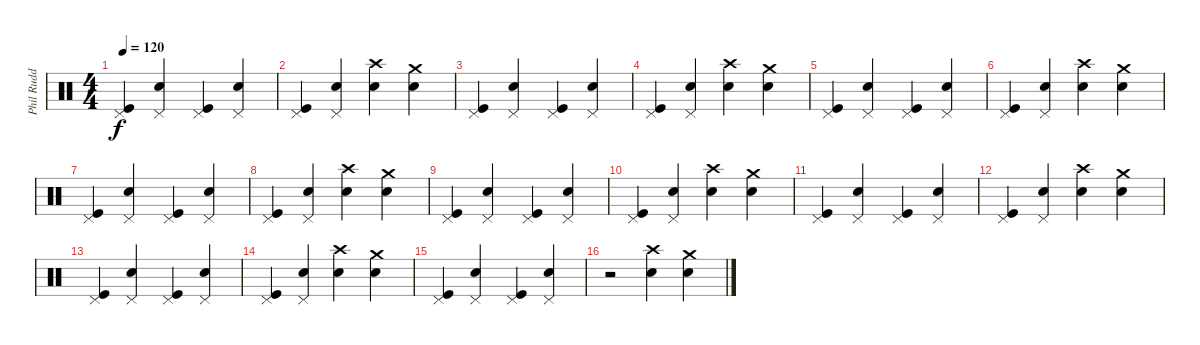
\track ("Phil Rudd" "Phil Rudd") {instrument percussion}
\staff {score}
\articulation defaults
\ts (4 4)
\tempo 120
\clef neutral
\ks c
("Pedal Hi-Hat (hit)" "Kick (hit)").4{dy f} ("Pedal Hi-Hat (hit)" "Electric Snare (hit)").4 ("Pedal Hi-Hat (hit)" "Kick (hit)").4 ("Pedal Hi-Hat (hit)" "Electric Snare (hit)").4 |
("Pedal Hi-Hat (hit)" "Kick (hit)").4 ("Pedal Hi-Hat (hit)" "Electric Snare (hit)").4 ("Electric Snare (hit)" "Crash high (hit)").4 ("Crash medium (hit)" "Electric Snare (hit)").4 |
("Pedal Hi-Hat (hit)" "Kick (hit)").4 ("Pedal Hi-Hat (hit)" "Electric Snare (hit)").4 ("Pedal Hi-Hat (hit)" "Kick (hit)").4 ("Pedal Hi-Hat (hit)" "Electric Snare (hit)").4 |
("Pedal Hi-Hat (hit)" "Kick (hit)").4 ("Pedal Hi-Hat (hit)" "Electric Snare (hit)").4 ("Electric Snare (hit)" "Crash high (hit)").4 ("Crash medium (hit)" "Electric Snare (hit)").4 |
("Pedal Hi-Hat (hit)" "Kick (hit)").4 ("Pedal Hi-Hat (hit)" "Electric Snare (hit)").4 ("Pedal Hi-Hat (hit)" "Kick (hit)").4 ("Pedal Hi-Hat (hit)" "Electric Snare (hit)").4 |
("Pedal Hi-Hat (hit)" "Kick (hit)").4 ("Pedal Hi-Hat (hit)" "Electric Snare (hit)").4 ("Electric Snare (hit)" "Crash high (hit)").4 ("Crash medium (hit)" "Electric Snare (hit)").4 |
("Pedal Hi-Hat (hit)" "Kick (hit)").4 ("Pedal Hi-Hat (hit)" "Electric Snare (hit)").4 ("Pedal Hi-Hat (hit)" "Kick (hit)").4 ("Pedal Hi-Hat (hit)" "Electric Snare (hit)").4 |
("Pedal Hi-Hat (hit)" "Kick (hit)").4 ("Pedal Hi-Hat (hit)" "Electric Snare (hit)").4 ("Electric Snare (hit)" "Crash high (hit)").4 ("Crash medium (hit)" "Electric Snare (hit)").4 |
("Pedal Hi-Hat (hit)" "Kick (hit)").4 ("Pedal Hi-Hat (hit)" "Electric Snare (hit)").4 ("Pedal Hi-Hat (hit)" "Kick (hit)").4 ("Pedal Hi-Hat (hit)" "Electric Snare (hit)").4 |
("Pedal Hi-Hat (hit)" "Kick (hit)").4 ("Pedal Hi-Hat (hit)" "Electric Snare (hit)").4 ("Electric Snare (hit)" "Crash high (hit)").4 ("Crash medium (hit)" "Electric Snare (hit)").4 |
("Pedal Hi-Hat (hit)" "Kick (hit)").4 ("Pedal Hi-Hat (hit)" "Electric Snare (hit)").4 ("Pedal Hi-Hat (hit)" "Kick (hit)").4 ("Pedal Hi-Hat (hit)" "Electric Snare (hit)").4 |
("Pedal Hi-Hat (hit)" "Kick (hit)").4 ("Pedal Hi-Hat (hit)" "Electric Snare (hit)").4 ("Electric Snare (hit)" "Crash high (hit)").4 ("Crash medium (hit)" "Electric Snare (hit)").4 |
("Pedal Hi-Hat (hit)" "Kick (hit)").4 ("Pedal Hi-Hat (hit)" "Electric Snare (hit)").4 ("Pedal Hi-Hat (hit)" "Kick (hit)").4 ("Pedal Hi-Hat (hit)" "Electric Snare (hit)").4 |
("Pedal Hi-Hat (hit)" "Kick (hit)").4 ("Pedal Hi-Hat (hit)" "Electric Snare (hit)").4 ("Electric Snare (hit)" "Crash high (hit)").4 ("Crash medium (hit)" "Electric Snare (hit)").4 |
("Pedal Hi-Hat (hit)" "Kick (hit)").4 ("Pedal Hi-Hat (hit)" "Electric Snare (hit)").4 ("Pedal Hi-Hat (hit)" "Kick (hit)").4 ("Pedal Hi-Hat (hit)" "Electric Snare (hit)").4 |
r.2 ("Electric Snare (hit)" "Crash high (hit)").4 ("Crash medium (hit)" "Electric Snare (hit)").4
